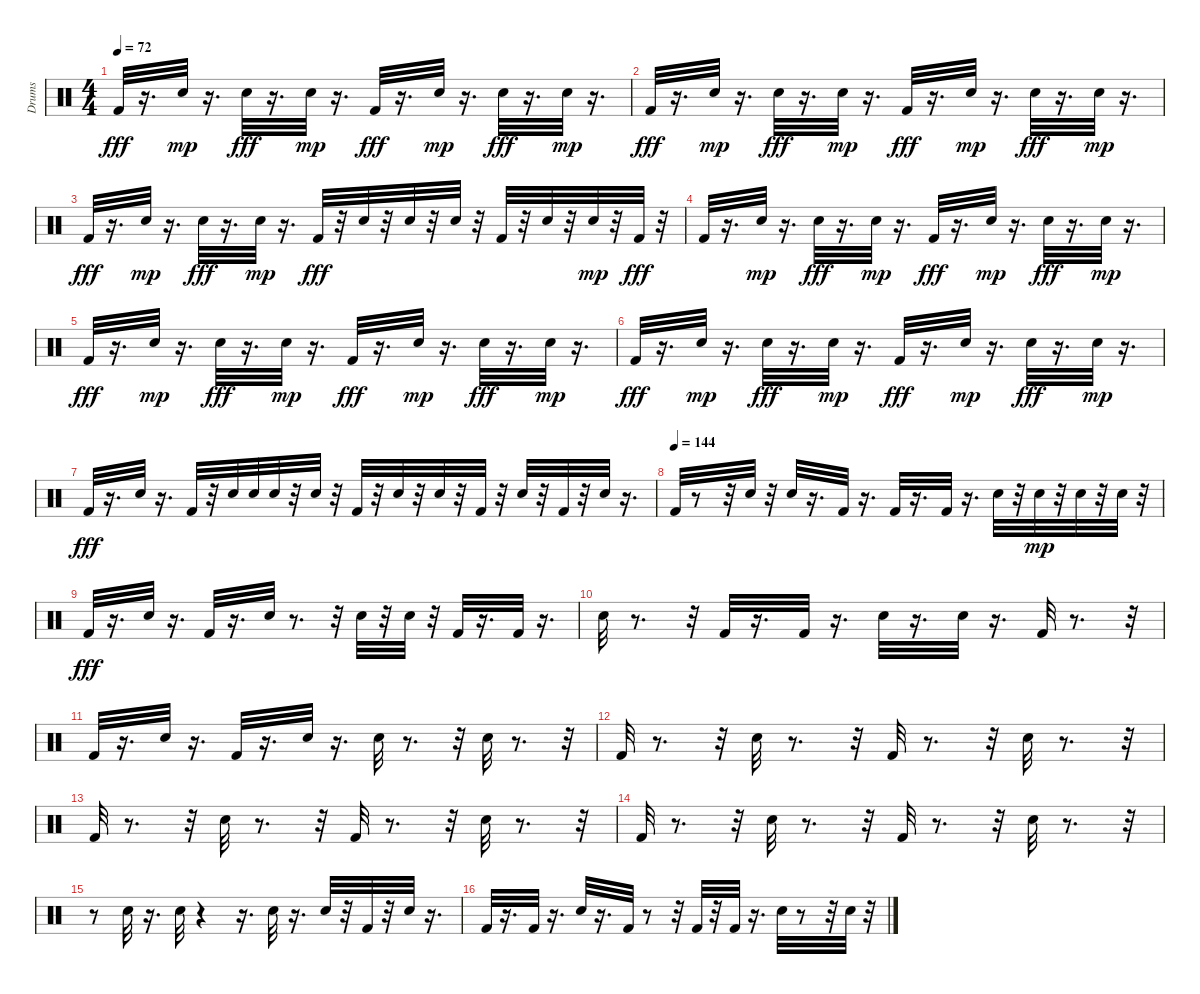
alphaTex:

\track ("Drums" "Drums") {instrument percussion}
\staff {score}
\articulation defaults
\ts (4 4)
\tempo 72
\clef neutral
\ks c "Kick (hit) 2".32{dy fff}
r.16{d} "Snare (hit) 2".32{dy mp} r.16{d} "Snare (hit) 2".32{dy fff} r.16{d} "Snare (hit) 2".32{dy mp} r.16{d} "Kick (hit) 2".32{dy fff} r.16{d} "Snare (hit) 2".32{dy mp} r.16{d} "Snare (hit) 2".32{dy fff} r.16{d} "Snare (hit) 2".32{dy mp} r.16{d} |
"Kick (hit) 2".32{dy fff} r.16{d} "Snare (hit) 2".32{dy mp} r.16{d} "Snare (hit) 2".32{dy fff} r.16{d} "Snare (hit) 2".32{dy mp} r.16{d} "Kick (hit) 2".32{dy fff} r.16{d} "Snare (hit) 2".32{dy mp} r.16{d} "Snare (hit) 2".32{dy fff} r.16{d} "Snare (hit) 2".32{dy mp} r.16{d} |
"Kick (hit) 2".32{dy fff} r.16{d} "Snare (hit) 2".32{dy mp} r.16{d} "Snare (hit) 2".32{dy fff} r.16{d} "Snare (hit) 2".32{dy mp} r.16{d} "Kick (hit) 2".32{dy fff} r.32 "Snare (hit) 2".32 r.32 "Snare (hit) 2".32 r.32 "Snare (hit) 2".32 r.32 "Kick (hit) 2".32 r.32 "Snare (hit) 2".32 r.32 "Snare (hit) 2".32{dy mp} r.32 "Kick (hit) 2".32{dy fff} r.32 |
"Kick (hit) 2".32 r.16{d} "Snare (hit) 2".32{dy mp} r.16{d} "Snare (hit) 2".32{dy fff} r.16{d} "Snare (hit) 2".32{dy mp} r.16{d} "Kick (hit) 2".32{dy fff} r.16{d} "Snare (hit) 2".32{dy mp} r.16{d} "Snare (hit) 2".32{dy fff} r.16{d} "Snare (hit) 2".32{dy mp} r.16{d} |
"Kick (hit) 2".32{dy fff} r.16{d} "Snare (hit) 2".32{dy mp} r.16{d} "Snare (hit) 2".32{dy fff} r.16{d} "Snare (hit) 2".32{dy mp} r.16{d} "Kick (hit) 2".32{dy fff} r.16{d} "Snare (hit) 2".32{dy mp} r.16{d} "Snare (hit) 2".32{dy fff} r.16{d} "Snare (hit) 2".32{dy mp} r.16{d} |
"Kick (hit) 2".32{dy fff} r.16{d} "Snare (hit) 2".32{dy mp} r.16{d} "Snare (hit) 2".32{dy fff} r.16{d} "Snare (hit) 2".32{dy mp} r.16{d} "Kick (hit) 2".32{dy fff} r.16{d} "Snare (hit) 2".32{dy mp} r.16{d} "Snare (hit) 2".32{dy fff} r.16{d} "Snare (hit) 2".32{dy mp} r.16{d} |
"Kick (hit) 2".32{dy fff} r.16{d} "Snare (hit) 2".32 r.16{d} "Kick (hit) 2".32 r.32 "Snare (hit) 2".32 "Snare (hit) 2".32 "Snare (hit) 2".32 r.32 "Snare (hit) 2".32 r.32 "Kick (hit) 2".32 r.32 "Snare (hit) 2".32 r.32 "Snare (hit) 2".32 r.32 "Kick (hit) 2".32 r.32 "Snare (hit) 2".32 r.32 "Kick (hit) 2".32 r.32 "Snare (hit) 2".32 r.16{d} |
\tempo (144)
"Kick (hit) 2".32 r.8 r.32 "Snare (hit) 2".32 r.32 "Snare (hit) 2".32 r.16{d} "Kick (hit) 2".32 r.16{d} "Kick (hit) 2".32 r.16{d} "Kick (hit) 2".32 r.16{d} "Snare (hit) 2".32 r.32 "Snare (hit) 2".32{dy mp} r.32 "Snare (hit) 2".32 r.32 "Snare (hit) 2".32 r.32 |
"Kick (hit) 2".32{dy fff} r.16{d} "Snare (hit) 2".32 r.16{d} "Kick (hit) 2".32 r.16{d} "Snare (hit) 2".32 r.8{d} r.32 "Snare (hit) 2".32 r.32 "Snare (hit) 2".32 r.32 "Kick (hit) 2".32 r.16{d} "Kick (hit) 2".32 r.16{d} |
"Snare (hit) 2".32 r.8{d} r.32 "Kick (hit) 2".32 r.16{d} "Kick (hit) 2".32 r.16{d} "Snare (hit) 2".32 r.16{d} "Snare (hit) 2".32 r.16{d} "Kick (hit) 2".32 r.8{d} r.32 |
"Kick (hit) 2".32 r.16{d} "Snare (hit) 2".32 r.16{d} "Kick (hit) 2".32 r.16{d} "Snare (hit) 2".32 r.16{d} "Snare (hit) 2".32 r.8{d} r.32 "Snare (hit) 2".32 r.8{d} r.32 |
"Kick (hit) 2".32 r.8{d} r.32 "Snare (hit) 2".32 r.8{d} r.32 "Kick (hit) 2".32 r.8{d} r.32 "Snare (hit) 2".32 r.8{d} r.32 |
"Kick (hit) 2".32 r.8{d} r.32 "Snare (hit) 2".32 r.8{d} r.32 "Kick (hit) 2".32 r.8{d} r.32 "Snare (hit) 2".32 r.8{d} r.32 |
"Kick (hit) 2".32 r.8{d} r.32 "Snare (hit) 2".32 r.8{d} r.32 "Kick (hit) 2".32 r.8{d} r.32 "Snare (hit) 2".32 r.8{d} r.32 |
r.8 "Snare (hit) 2".32 r.16{d} "Snare (hit) 2".32 r.4 r.16{d} "Snare (hit) 2".32 r.16{d} "Snare (hit) 2".32 r.32 "Kick (hit) 2".32 r.32 "Snare (hit) 2".32 r.16{d} |
"Kick (hit) 2".32 r.16{d} "Kick (hit) 2".32 r.16{d} "Snare (hit) 2".32 r.16{d} "Kick (hit) 2".32 r.8 r.32 "Kick (hit) 2".32 r.32 "Kick (hit) 2".32 r.16{d} "Snare (hit) 2".32 r.8 r.32 "Snare (hit) 2".32 r.32
